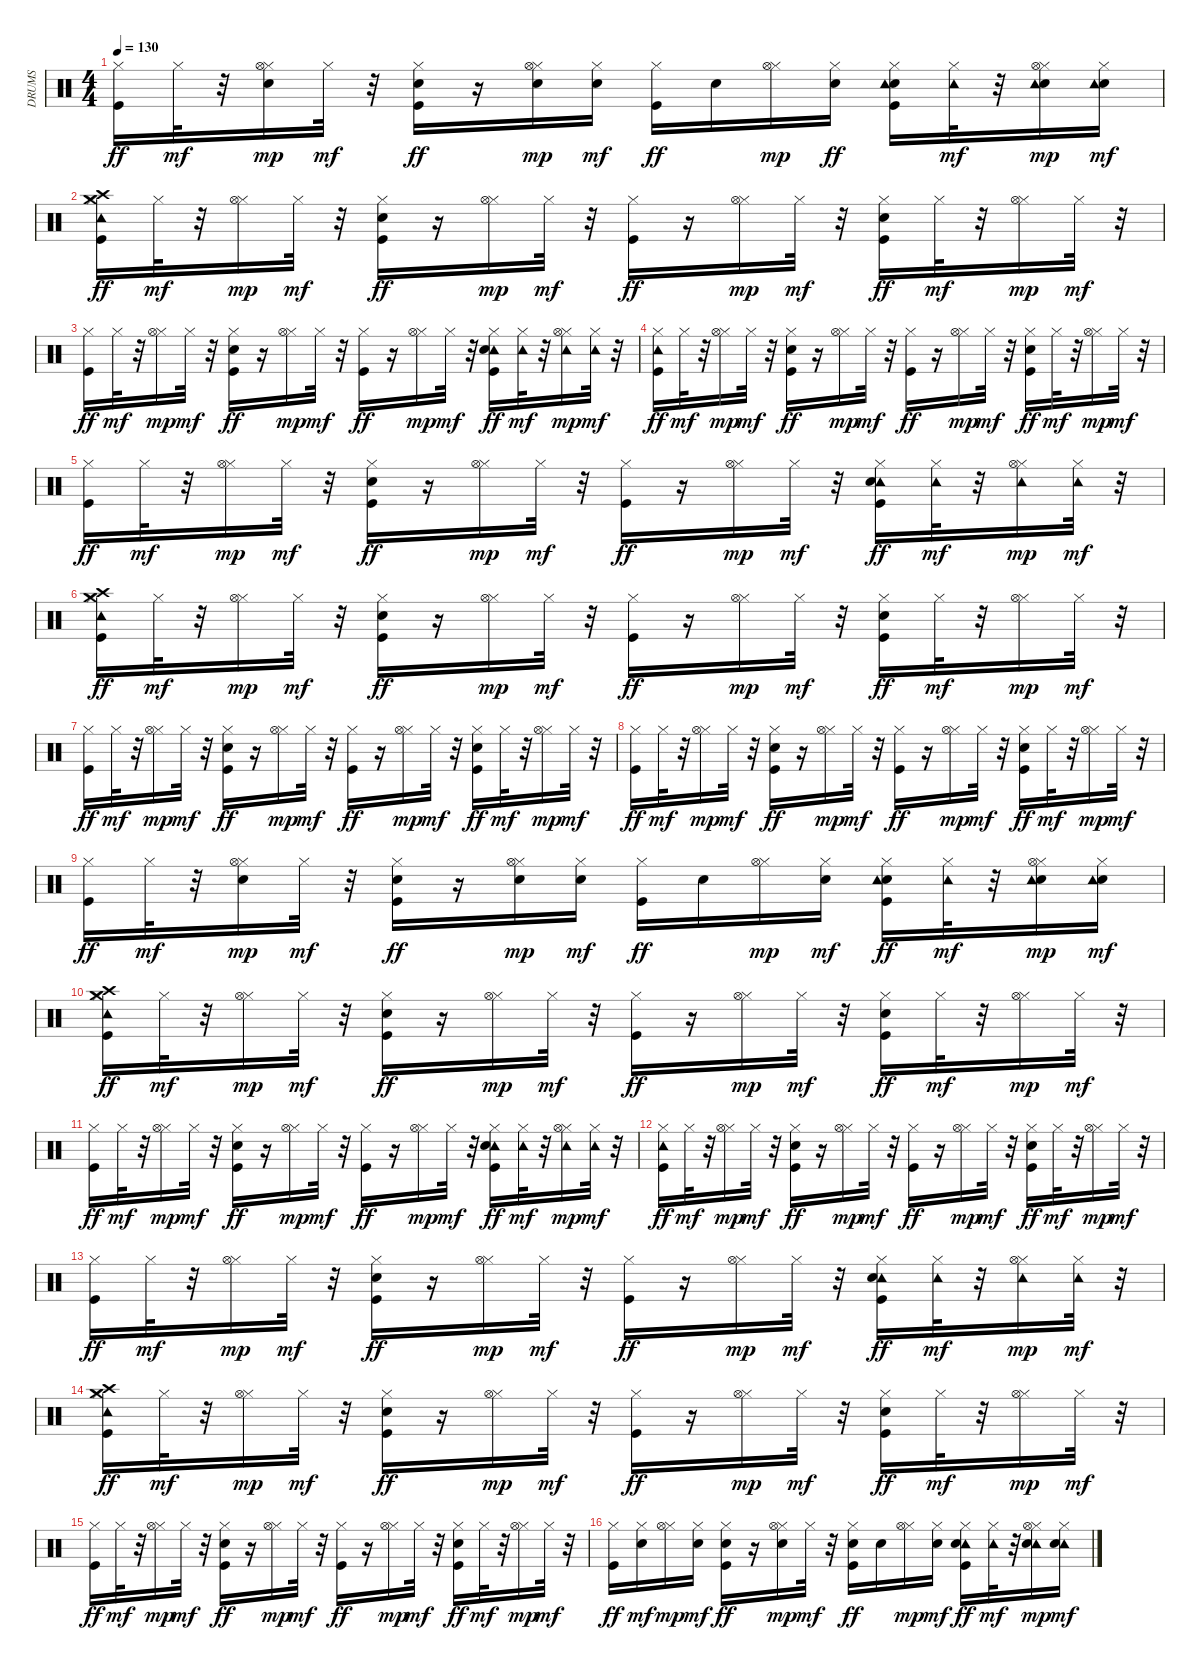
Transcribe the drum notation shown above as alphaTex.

\track ("DRUMS" "DRUMS") {instrument percussion}
\staff {score}
\articulation defaults
\ts (4 4)
\tempo 130
\clef neutral
\ks c
("Hi-Hat (closed)" "Kick (hit)").16{dy ff} "Hi-Hat (closed)".32{dy mf} r.32 ("Electric Snare (hit)" "Hi-Hat (closed)" "Hi-Hat (open)").16{dy mp} "Hi-Hat (closed)".32{dy mf} r.32 ("Hi-Hat (closed)" "Electric Snare (hit)" "Kick (hit)").16{dy ff} r.16 ("Electric Snare (hit)" "Hi-Hat (closed)" "Hi-Hat (open)").16{dy mp} ("Electric Snare (hit)" "Hi-Hat (closed)").16{dy mf} ("Hi-Hat (closed)" "Kick (hit)").16{dy ff} "Electric Snare (hit)".16 ("Hi-Hat (closed)" "Hi-Hat (open)").16{dy mp} ("Hi-Hat (closed)" "Electric Snare (hit)").16{dy ff} ("Hi-Hat (closed)" "Electric Snare (hit)" "Tambourine (hit)" "Kick (hit)").16 ("Hi-Hat (closed)" "Tambourine (hit)").32{dy mf} r.32 ("Hi-Hat (closed)" "Electric Snare (hit)" "Tambourine (hit)" "Hi-Hat (open)").16{dy mp} ("Hi-Hat (closed)" "Electric Snare (hit)" "Tambourine (hit)").16{dy mf} |
("Hi-Hat (closed)" "Tambourine (hit)" "Crash high (hit)" "Crash medium (hit)" "Kick (hit)").16{dy ff} "Hi-Hat (closed)".32{dy mf} r.32 ("Hi-Hat (closed)" "Hi-Hat (open)").16{dy mp} "Hi-Hat (closed)".32{dy mf} r.32 ("Hi-Hat (closed)" "Electric Snare (hit)" "Kick (hit)").16{dy ff} r.16 ("Hi-Hat (closed)" "Hi-Hat (open)").16{dy mp} "Hi-Hat (closed)".32{dy mf} r.32 ("Hi-Hat (closed)" "Kick (hit)").16{dy ff} r.16 ("Hi-Hat (closed)" "Hi-Hat (open)").16{dy mp} "Hi-Hat (closed)".32{dy mf} r.32 ("Hi-Hat (closed)" "Electric Snare (hit)" "Kick (hit)").16{dy ff} "Hi-Hat (closed)".32{dy mf} r.32 ("Hi-Hat (closed)" "Hi-Hat (open)").16{dy mp} "Hi-Hat (closed)".32{dy mf} r.32 |
("Hi-Hat (closed)" "Kick (hit)").16{dy ff} "Hi-Hat (closed)".32{dy mf} r.32 ("Hi-Hat (closed)" "Hi-Hat (open)").16{dy mp} "Hi-Hat (closed)".32{dy mf} r.32 ("Hi-Hat (closed)" "Electric Snare (hit)" "Kick (hit)").16{dy ff} r.16 ("Hi-Hat (closed)" "Hi-Hat (open)").16{dy mp} "Hi-Hat (closed)".32{dy mf} r.32 ("Hi-Hat (closed)" "Kick (hit)").16{dy ff} r.16 ("Hi-Hat (closed)" "Hi-Hat (open)").16{dy mp} "Hi-Hat (closed)".32{dy mf} r.32 ("Hi-Hat (closed)" "Tambourine (hit)" "Electric Snare (hit)" "Kick (hit)").16{dy ff} ("Hi-Hat (closed)" "Tambourine (hit)").32{dy mf} r.32 ("Hi-Hat (closed)" "Tambourine (hit)" "Hi-Hat (open)").16{dy mp} ("Hi-Hat (closed)" "Tambourine (hit)").32{dy mf} r.32 |
("Hi-Hat (closed)" "Tambourine (hit)" "Kick (hit)").16{dy ff} "Hi-Hat (closed)".32{dy mf} r.32 ("Hi-Hat (closed)" "Hi-Hat (open)").16{dy mp} "Hi-Hat (closed)".32{dy mf} r.32 ("Hi-Hat (closed)" "Electric Snare (hit)" "Kick (hit)").16{dy ff} r.16 ("Hi-Hat (closed)" "Hi-Hat (open)").16{dy mp} "Hi-Hat (closed)".32{dy mf} r.32 ("Hi-Hat (closed)" "Kick (hit)").16{dy ff} r.16 ("Hi-Hat (closed)" "Hi-Hat (open)").16{dy mp} "Hi-Hat (closed)".32{dy mf} r.32 ("Hi-Hat (closed)" "Electric Snare (hit)" "Kick (hit)").16{dy ff} "Hi-Hat (closed)".32{dy mf} r.32 ("Hi-Hat (closed)" "Hi-Hat (open)").16{dy mp} "Hi-Hat (closed)".32{dy mf} r.32 |
("Hi-Hat (closed)" "Kick (hit)").16{dy ff} "Hi-Hat (closed)".32{dy mf} r.32 ("Hi-Hat (closed)" "Hi-Hat (open)").16{dy mp} "Hi-Hat (closed)".32{dy mf} r.32 ("Hi-Hat (closed)" "Electric Snare (hit)" "Kick (hit)").16{dy ff} r.16 ("Hi-Hat (closed)" "Hi-Hat (open)").16{dy mp} "Hi-Hat (closed)".32{dy mf} r.32 ("Hi-Hat (closed)" "Kick (hit)").16{dy ff} r.16 ("Hi-Hat (closed)" "Hi-Hat (open)").16{dy mp} "Hi-Hat (closed)".32{dy mf} r.32 ("Hi-Hat (closed)" "Tambourine (hit)" "Electric Snare (hit)" "Kick (hit)").16{dy ff} ("Hi-Hat (closed)" "Tambourine (hit)").32{dy mf} r.32 ("Hi-Hat (closed)" "Tambourine (hit)" "Hi-Hat (open)").16{dy mp} ("Hi-Hat (closed)" "Tambourine (hit)").32{dy mf} r.32 |
("Hi-Hat (closed)" "Tambourine (hit)" "Crash high (hit)" "Crash medium (hit)" "Kick (hit)").16{dy ff} "Hi-Hat (closed)".32{dy mf} r.32 ("Hi-Hat (closed)" "Hi-Hat (open)").16{dy mp} "Hi-Hat (closed)".32{dy mf} r.32 ("Hi-Hat (closed)" "Electric Snare (hit)" "Kick (hit)").16{dy ff} r.16 ("Hi-Hat (closed)" "Hi-Hat (open)").16{dy mp} "Hi-Hat (closed)".32{dy mf} r.32 ("Hi-Hat (closed)" "Kick (hit)").16{dy ff} r.16 ("Hi-Hat (closed)" "Hi-Hat (open)").16{dy mp} "Hi-Hat (closed)".32{dy mf} r.32 ("Hi-Hat (closed)" "Electric Snare (hit)" "Kick (hit)").16{dy ff} "Hi-Hat (closed)".32{dy mf} r.32 ("Hi-Hat (closed)" "Hi-Hat (open)").16{dy mp} "Hi-Hat (closed)".32{dy mf} r.32 |
("Hi-Hat (closed)" "Kick (hit)").16{dy ff} "Hi-Hat (closed)".32{dy mf} r.32 ("Hi-Hat (closed)" "Hi-Hat (open)").16{dy mp} "Hi-Hat (closed)".32{dy mf} r.32 ("Hi-Hat (closed)" "Electric Snare (hit)" "Kick (hit)").16{dy ff} r.16 ("Hi-Hat (closed)" "Hi-Hat (open)").16{dy mp} "Hi-Hat (closed)".32{dy mf} r.32 ("Hi-Hat (closed)" "Kick (hit)").16{dy ff} r.16 ("Hi-Hat (closed)" "Hi-Hat (open)").16{dy mp} "Hi-Hat (closed)".32{dy mf} r.32 ("Hi-Hat (closed)" "Electric Snare (hit)" "Kick (hit)").16{dy ff} "Hi-Hat (closed)".32{dy mf} r.32 ("Hi-Hat (closed)" "Hi-Hat (open)").16{dy mp} "Hi-Hat (closed)".32{dy mf} r.32 |
("Hi-Hat (closed)" "Kick (hit)").16{dy ff} "Hi-Hat (closed)".32{dy mf} r.32 ("Hi-Hat (closed)" "Hi-Hat (open)").16{dy mp} "Hi-Hat (closed)".32{dy mf} r.32 ("Hi-Hat (closed)" "Electric Snare (hit)" "Kick (hit)").16{dy ff} r.16 ("Hi-Hat (closed)" "Hi-Hat (open)").16{dy mp} "Hi-Hat (closed)".32{dy mf} r.32 ("Hi-Hat (closed)" "Kick (hit)").16{dy ff} r.16 ("Hi-Hat (closed)" "Hi-Hat (open)").16{dy mp} "Hi-Hat (closed)".32{dy mf} r.32 ("Hi-Hat (closed)" "Electric Snare (hit)" "Kick (hit)").16{dy ff} "Hi-Hat (closed)".32{dy mf} r.32 ("Hi-Hat (closed)" "Hi-Hat (open)").16{dy mp} "Hi-Hat (closed)".32{dy mf} r.32 |
("Hi-Hat (closed)" "Kick (hit)").16{dy ff} "Hi-Hat (closed)".32{dy mf} r.32 ("Electric Snare (hit)" "Hi-Hat (closed)" "Hi-Hat (open)").16{dy mp} "Hi-Hat (closed)".32{dy mf} r.32 ("Electric Snare (hit)" "Hi-Hat (closed)" "Kick (hit)").16{dy ff} r.16 ("Electric Snare (hit)" "Hi-Hat (closed)" "Hi-Hat (open)").16{dy mp} ("Electric Snare (hit)" "Hi-Hat (closed)").16{dy mf} ("Hi-Hat (closed)" "Kick (hit)").16{dy ff} "Electric Snare (hit)".16 ("Hi-Hat (closed)" "Hi-Hat (open)").16{dy mp} ("Electric Snare (hit)" "Hi-Hat (closed)").16{dy mf} ("Electric Snare (hit)" "Hi-Hat (closed)" "Tambourine (hit)" "Kick (hit)").16{dy ff} ("Hi-Hat (closed)" "Tambourine (hit)").32{dy mf} r.32 ("Electric Snare (hit)" "Hi-Hat (closed)" "Tambourine (hit)" "Hi-Hat (open)").16{dy mp} ("Electric Snare (hit)" "Hi-Hat (closed)" "Tambourine (hit)").16{dy mf} |
("Hi-Hat (closed)" "Tambourine (hit)" "Crash high (hit)" "Crash medium (hit)" "Kick (hit)").16{dy ff} "Hi-Hat (closed)".32{dy mf} r.32 ("Hi-Hat (closed)" "Hi-Hat (open)").16{dy mp} "Hi-Hat (closed)".32{dy mf} r.32 ("Hi-Hat (closed)" "Electric Snare (hit)" "Kick (hit)").16{dy ff} r.16 ("Hi-Hat (closed)" "Hi-Hat (open)").16{dy mp} "Hi-Hat (closed)".32{dy mf} r.32 ("Hi-Hat (closed)" "Kick (hit)").16{dy ff} r.16 ("Hi-Hat (closed)" "Hi-Hat (open)").16{dy mp} "Hi-Hat (closed)".32{dy mf} r.32 ("Hi-Hat (closed)" "Electric Snare (hit)" "Kick (hit)").16{dy ff} "Hi-Hat (closed)".32{dy mf} r.32 ("Hi-Hat (closed)" "Hi-Hat (open)").16{dy mp} "Hi-Hat (closed)".32{dy mf} r.32 |
("Hi-Hat (closed)" "Kick (hit)").16{dy ff} "Hi-Hat (closed)".32{dy mf} r.32 ("Hi-Hat (closed)" "Hi-Hat (open)").16{dy mp} "Hi-Hat (closed)".32{dy mf} r.32 ("Hi-Hat (closed)" "Electric Snare (hit)" "Kick (hit)").16{dy ff} r.16 ("Hi-Hat (closed)" "Hi-Hat (open)").16{dy mp} "Hi-Hat (closed)".32{dy mf} r.32 ("Hi-Hat (closed)" "Kick (hit)").16{dy ff} r.16 ("Hi-Hat (closed)" "Hi-Hat (open)").16{dy mp} "Hi-Hat (closed)".32{dy mf} r.32 ("Hi-Hat (closed)" "Tambourine (hit)" "Electric Snare (hit)" "Kick (hit)").16{dy ff} ("Hi-Hat (closed)" "Tambourine (hit)").32{dy mf} r.32 ("Hi-Hat (closed)" "Tambourine (hit)" "Hi-Hat (open)").16{dy mp} ("Hi-Hat (closed)" "Tambourine (hit)").32{dy mf} r.32 |
("Hi-Hat (closed)" "Tambourine (hit)" "Kick (hit)").16{dy ff} "Hi-Hat (closed)".32{dy mf} r.32 ("Hi-Hat (closed)" "Hi-Hat (open)").16{dy mp} "Hi-Hat (closed)".32{dy mf} r.32 ("Hi-Hat (closed)" "Electric Snare (hit)" "Kick (hit)").16{dy ff} r.16 ("Hi-Hat (closed)" "Hi-Hat (open)").16{dy mp} "Hi-Hat (closed)".32{dy mf} r.32 ("Hi-Hat (closed)" "Kick (hit)").16{dy ff} r.16 ("Hi-Hat (closed)" "Hi-Hat (open)").16{dy mp} "Hi-Hat (closed)".32{dy mf} r.32 ("Hi-Hat (closed)" "Electric Snare (hit)" "Kick (hit)").16{dy ff} "Hi-Hat (closed)".32{dy mf} r.32 ("Hi-Hat (closed)" "Hi-Hat (open)").16{dy mp} "Hi-Hat (closed)".32{dy mf} r.32 |
("Hi-Hat (closed)" "Kick (hit)").16{dy ff} "Hi-Hat (closed)".32{dy mf} r.32 ("Hi-Hat (closed)" "Hi-Hat (open)").16{dy mp} "Hi-Hat (closed)".32{dy mf} r.32 ("Hi-Hat (closed)" "Electric Snare (hit)" "Kick (hit)").16{dy ff} r.16 ("Hi-Hat (closed)" "Hi-Hat (open)").16{dy mp} "Hi-Hat (closed)".32{dy mf} r.32 ("Hi-Hat (closed)" "Kick (hit)").16{dy ff} r.16 ("Hi-Hat (closed)" "Hi-Hat (open)").16{dy mp} "Hi-Hat (closed)".32{dy mf} r.32 ("Hi-Hat (closed)" "Tambourine (hit)" "Electric Snare (hit)" "Kick (hit)").16{dy ff} ("Hi-Hat (closed)" "Tambourine (hit)").32{dy mf} r.32 ("Hi-Hat (closed)" "Tambourine (hit)" "Hi-Hat (open)").16{dy mp} ("Hi-Hat (closed)" "Tambourine (hit)").32{dy mf} r.32 |
("Hi-Hat (closed)" "Tambourine (hit)" "Crash high (hit)" "Crash medium (hit)" "Kick (hit)").16{dy ff} "Hi-Hat (closed)".32{dy mf} r.32 ("Hi-Hat (closed)" "Hi-Hat (open)").16{dy mp} "Hi-Hat (closed)".32{dy mf} r.32 ("Hi-Hat (closed)" "Electric Snare (hit)" "Kick (hit)").16{dy ff} r.16 ("Hi-Hat (closed)" "Hi-Hat (open)").16{dy mp} "Hi-Hat (closed)".32{dy mf} r.32 ("Hi-Hat (closed)" "Kick (hit)").16{dy ff} r.16 ("Hi-Hat (closed)" "Hi-Hat (open)").16{dy mp} "Hi-Hat (closed)".32{dy mf} r.32 ("Hi-Hat (closed)" "Electric Snare (hit)" "Kick (hit)").16{dy ff} "Hi-Hat (closed)".32{dy mf} r.32 ("Hi-Hat (closed)" "Hi-Hat (open)").16{dy mp} "Hi-Hat (closed)".32{dy mf} r.32 |
("Hi-Hat (closed)" "Kick (hit)").16{dy ff} "Hi-Hat (closed)".32{dy mf} r.32 ("Hi-Hat (closed)" "Hi-Hat (open)").16{dy mp} "Hi-Hat (closed)".32{dy mf} r.32 ("Hi-Hat (closed)" "Electric Snare (hit)" "Kick (hit)").16{dy ff} r.16 ("Hi-Hat (closed)" "Hi-Hat (open)").16{dy mp} "Hi-Hat (closed)".32{dy mf} r.32 ("Hi-Hat (closed)" "Kick (hit)").16{dy ff} r.16 ("Hi-Hat (closed)" "Hi-Hat (open)").16{dy mp} "Hi-Hat (closed)".32{dy mf} r.32 ("Hi-Hat (closed)" "Electric Snare (hit)" "Kick (hit)").16{dy ff} "Hi-Hat (closed)".32{dy mf} r.32 ("Hi-Hat (closed)" "Hi-Hat (open)").16{dy mp} "Hi-Hat (closed)".32{dy mf} r.32 |
("Hi-Hat (closed)" "Kick (hit)").16{dy ff} ("Electric Snare (hit)" "Hi-Hat (closed)").16{dy mf} ("Hi-Hat (closed)" "Hi-Hat (open)").16{dy mp} ("Electric Snare (hit)" "Hi-Hat (closed)").16{dy mf} ("Electric Snare (hit)" "Hi-Hat (closed)" "Kick (hit)").16{dy ff} r.16 ("Electric Snare (hit)" "Hi-Hat (closed)" "Hi-Hat (open)").16{dy mp} "Hi-Hat (closed)".32{dy mf} r.32 ("Electric Snare (hit)" "Hi-Hat (closed)" "Kick (hit)").16{dy ff} "Electric Snare (hit)".16 ("Hi-Hat (closed)" "Hi-Hat (open)").16{dy mp} ("Electric Snare (hit)" "Hi-Hat (closed)").16{dy mf} ("Tambourine (hit)" "Electric Snare (hit)" "Hi-Hat (closed)" "Kick (hit)").16{dy ff} ("Tambourine (hit)" "Hi-Hat (closed)").32{dy mf} r.32 ("Tambourine (hit)" "Electric Snare (hit)" "Hi-Hat (closed)" "Hi-Hat (open)").16{dy mp} ("Tambourine (hit)" "Electric Snare (hit)" "Hi-Hat (closed)").16{dy mf}
